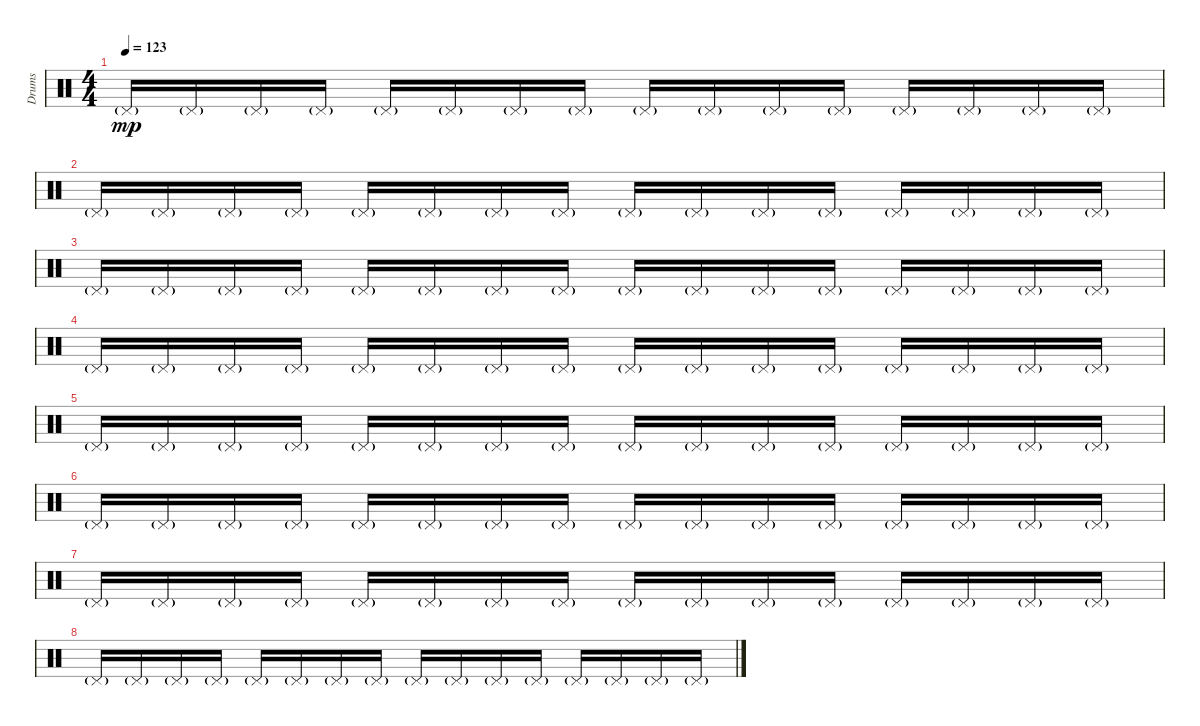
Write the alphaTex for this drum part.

\track ("Drums" "Drums") {instrument percussion}
\staff {score}
\articulation defaults
\ts (4 4)
\tempo 123
\clef neutral
\ks c "Pedal Hi-Hat (hit)"{g}.16{dy mp volume 8} "Pedal Hi-Hat (hit)"{g}.16 "Pedal Hi-Hat (hit)"{g}.16 "Pedal Hi-Hat (hit)"{g}.16 "Pedal Hi-Hat (hit)"{g}.16 "Pedal Hi-Hat (hit)"{g}.16 "Pedal Hi-Hat (hit)"{g}.16 "Pedal Hi-Hat (hit)"{g}.16 "Pedal Hi-Hat (hit)"{g}.16 "Pedal Hi-Hat (hit)"{g}.16 "Pedal Hi-Hat (hit)"{g}.16 "Pedal Hi-Hat (hit)"{g}.16 "Pedal Hi-Hat (hit)"{g}.16 "Pedal Hi-Hat (hit)"{g}.16 "Pedal Hi-Hat (hit)"{g}.16 "Pedal Hi-Hat (hit)"{g}.16
|
"Pedal Hi-Hat (hit)"{g}.16 "Pedal Hi-Hat (hit)"{g}.16 "Pedal Hi-Hat (hit)"{g}.16 "Pedal Hi-Hat (hit)"{g}.16 "Pedal Hi-Hat (hit)"{g}.16 "Pedal Hi-Hat (hit)"{g}.16 "Pedal Hi-Hat (hit)"{g}.16 "Pedal Hi-Hat (hit)"{g}.16 "Pedal Hi-Hat (hit)"{g}.16 "Pedal Hi-Hat (hit)"{g}.16 "Pedal Hi-Hat (hit)"{g}.16 "Pedal Hi-Hat (hit)"{g}.16 "Pedal Hi-Hat (hit)"{g}.16 "Pedal Hi-Hat (hit)"{g}.16 "Pedal Hi-Hat (hit)"{g}.16 "Pedal Hi-Hat (hit)"{g}.16 |
"Pedal Hi-Hat (hit)"{g}.16 "Pedal Hi-Hat (hit)"{g}.16 "Pedal Hi-Hat (hit)"{g}.16 "Pedal Hi-Hat (hit)"{g}.16 "Pedal Hi-Hat (hit)"{g}.16 "Pedal Hi-Hat (hit)"{g}.16 "Pedal Hi-Hat (hit)"{g}.16 "Pedal Hi-Hat (hit)"{g}.16 "Pedal Hi-Hat (hit)"{g}.16 "Pedal Hi-Hat (hit)"{g}.16 "Pedal Hi-Hat (hit)"{g}.16 "Pedal Hi-Hat (hit)"{g}.16 "Pedal Hi-Hat (hit)"{g}.16 "Pedal Hi-Hat (hit)"{g}.16 "Pedal Hi-Hat (hit)"{g}.16 "Pedal Hi-Hat (hit)"{g}.16 |
"Pedal Hi-Hat (hit)"{g}.16 "Pedal Hi-Hat (hit)"{g}.16 "Pedal Hi-Hat (hit)"{g}.16 "Pedal Hi-Hat (hit)"{g}.16 "Pedal Hi-Hat (hit)"{g}.16 "Pedal Hi-Hat (hit)"{g}.16 "Pedal Hi-Hat (hit)"{g}.16 "Pedal Hi-Hat (hit)"{g}.16 "Pedal Hi-Hat (hit)"{g}.16 "Pedal Hi-Hat (hit)"{g}.16 "Pedal Hi-Hat (hit)"{g}.16 "Pedal Hi-Hat (hit)"{g}.16 "Pedal Hi-Hat (hit)"{g}.16 "Pedal Hi-Hat (hit)"{g}.16 "Pedal Hi-Hat (hit)"{g}.16 "Pedal Hi-Hat (hit)"{g}.16 |
"Pedal Hi-Hat (hit)"{g}.16{volume 8} "Pedal Hi-Hat (hit)"{g}.16 "Pedal Hi-Hat (hit)"{g}.16 "Pedal Hi-Hat (hit)"{g}.16 "Pedal Hi-Hat (hit)"{g}.16 "Pedal Hi-Hat (hit)"{g}.16 "Pedal Hi-Hat (hit)"{g}.16 "Pedal Hi-Hat (hit)"{g}.16 "Pedal Hi-Hat (hit)"{g}.16 "Pedal Hi-Hat (hit)"{g}.16 "Pedal Hi-Hat (hit)"{g}.16 "Pedal Hi-Hat (hit)"{g}.16 "Pedal Hi-Hat (hit)"{g}.16 "Pedal Hi-Hat (hit)"{g}.16 "Pedal Hi-Hat (hit)"{g}.16 "Pedal Hi-Hat (hit)"{g}.16 |
"Pedal Hi-Hat (hit)"{g}.16 "Pedal Hi-Hat (hit)"{g}.16 "Pedal Hi-Hat (hit)"{g}.16 "Pedal Hi-Hat (hit)"{g}.16 "Pedal Hi-Hat (hit)"{g}.16 "Pedal Hi-Hat (hit)"{g}.16 "Pedal Hi-Hat (hit)"{g}.16 "Pedal Hi-Hat (hit)"{g}.16 "Pedal Hi-Hat (hit)"{g}.16 "Pedal Hi-Hat (hit)"{g}.16 "Pedal Hi-Hat (hit)"{g}.16 "Pedal Hi-Hat (hit)"{g}.16 "Pedal Hi-Hat (hit)"{g}.16 "Pedal Hi-Hat (hit)"{g}.16 "Pedal Hi-Hat (hit)"{g}.16 "Pedal Hi-Hat (hit)"{g}.16 |
"Pedal Hi-Hat (hit)"{g}.16 "Pedal Hi-Hat (hit)"{g}.16 "Pedal Hi-Hat (hit)"{g}.16 "Pedal Hi-Hat (hit)"{g}.16 "Pedal Hi-Hat (hit)"{g}.16 "Pedal Hi-Hat (hit)"{g}.16 "Pedal Hi-Hat (hit)"{g}.16 "Pedal Hi-Hat (hit)"{g}.16 "Pedal Hi-Hat (hit)"{g}.16 "Pedal Hi-Hat (hit)"{g}.16 "Pedal Hi-Hat (hit)"{g}.16 "Pedal Hi-Hat (hit)"{g}.16 "Pedal Hi-Hat (hit)"{g}.16 "Pedal Hi-Hat (hit)"{g}.16 "Pedal Hi-Hat (hit)"{g}.16 "Pedal Hi-Hat (hit)"{g}.16 |
"Pedal Hi-Hat (hit)"{g}.16 "Pedal Hi-Hat (hit)"{g}.16 "Pedal Hi-Hat (hit)"{g}.16 "Pedal Hi-Hat (hit)"{g}.16 "Pedal Hi-Hat (hit)"{g}.16 "Pedal Hi-Hat (hit)"{g}.16 "Pedal Hi-Hat (hit)"{g}.16 "Pedal Hi-Hat (hit)"{g}.16 "Pedal Hi-Hat (hit)"{g}.16 "Pedal Hi-Hat (hit)"{g}.16 "Pedal Hi-Hat (hit)"{g}.16 "Pedal Hi-Hat (hit)"{g}.16 "Pedal Hi-Hat (hit)"{g}.16 "Pedal Hi-Hat (hit)"{g}.16 "Pedal Hi-Hat (hit)"{g}.16 "Pedal Hi-Hat (hit)"{g}.16
